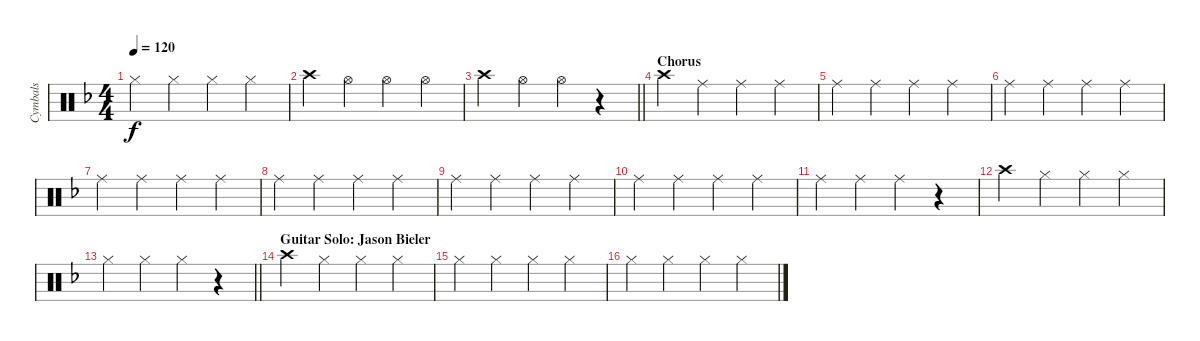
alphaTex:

\track ("Cymbals" "Cymbals") {instrument percussion}
\staff {score}
\articulation defaults
\ts (4 4)
\tempo 120
\clef neutral
\ks f "Hi-Hat (closed)".4{dy f} "Hi-Hat (closed)".4 "Hi-Hat (closed)".4 "Hi-Hat (closed)".4
|
"Crash high (hit)".4 "Hi-Hat (open)".4 "Hi-Hat (open)".4 "Hi-Hat (open)".4 |
\barLineRight lightlight "Crash high (hit)".4 "Hi-Hat (open)".4 "Hi-Hat (open)".4
r.4 |
\section ("" "Chorus")
"Crash high (hit)".4 "Ride (middle)".4 "Ride (middle)".4 "Ride (middle)".4 |
"Ride (middle)".4 "Ride (middle)".4 "Ride (middle)".4 "Ride (middle)".4 |
"Ride (middle)".4 "Ride (middle)".4 "Ride (middle)".4 "Ride (middle)".4 |
"Ride (middle)".4 "Ride (middle)".4 "Ride (middle)".4 "Ride (middle)".4 |
"Ride (middle)".4 "Ride (middle)".4 "Ride (middle)".4 "Ride (middle)".4 |
"Ride (middle)".4 "Ride (middle)".4 "Ride (middle)".4 "Ride (middle)".4 |
"Ride (middle)".4 "Ride (middle)".4 "Ride (middle)".4 "Ride (middle)".4 |
"Ride (middle)".4 "Ride (middle)".4 "Ride (middle)".4 r.4 |
"Crash high (hit)".4 "Hi-Hat (closed)".4 "Hi-Hat (closed)".4 "Hi-Hat (closed)".4 |
\barLineRight lightlight "Hi-Hat (closed)".4 "Hi-Hat (closed)".4 "Hi-Hat (closed)".4
r.4 |
\section ("" "Guitar Solo: Jason Bieler")
"Crash high (hit)".4 "Hi-Hat (closed)".4 "Hi-Hat (closed)".4 "Hi-Hat (closed)".4 |
"Hi-Hat (closed)".4 "Hi-Hat (closed)".4 "Hi-Hat (closed)".4 "Hi-Hat (closed)".4 |
"Hi-Hat (closed)".4 "Hi-Hat (closed)".4 "Hi-Hat (closed)".4 "Hi-Hat (closed)".4
